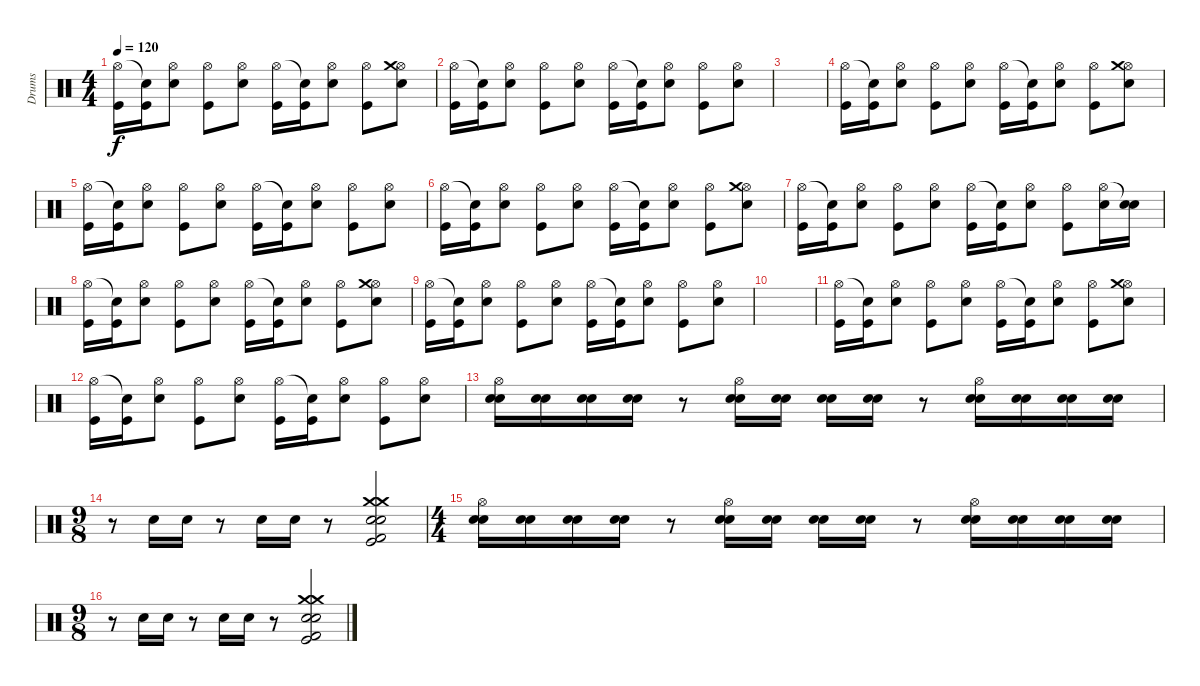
\track ("Drums" "Drums") {instrument percussion}
\staff {score}
\articulation defaults
\ts (4 4)
\tempo 120
\clef neutral
\ks c
("Hi-Hat (open)" "Kick (hit)").16{dy f} ("Snare (hit)"{t} "Kick (hit)").16 ("Hi-Hat (open)" "Electric Snare (hit)").8 ("Hi-Hat (open)" "Kick (hit)").8 ("Hi-Hat (open)" "Electric Snare (hit)").8 ("Hi-Hat (open)" "Kick (hit)").16 ("Snare (hit)"{t} "Kick (hit)").16 ("Hi-Hat (open)" "Electric Snare (hit)").8 ("Hi-Hat (open)" "Kick (hit)").8 ("Hi-Hat (open)" "Crash medium (hit)" "Electric Snare (hit)").8 |
("Hi-Hat (open)" "Kick (hit)").16 ("Snare (hit)"{t} "Kick (hit)").16 ("Hi-Hat (open)" "Electric Snare (hit)").8 ("Hi-Hat (open)" "Kick (hit)").8 ("Hi-Hat (open)" "Electric Snare (hit)").8 ("Hi-Hat (open)" "Kick (hit)").16 ("Snare (hit)"{t} "Kick (hit)").16 ("Hi-Hat (open)" "Electric Snare (hit)").8 ("Hi-Hat (open)" "Kick (hit)").8 ("Hi-Hat (open)" "Electric Snare (hit)").8 |
|
("Hi-Hat (open)" "Kick (hit)").16 ("Snare (hit)"{t} "Kick (hit)").16 ("Hi-Hat (open)" "Electric Snare (hit)").8 ("Hi-Hat (open)" "Kick (hit)").8 ("Hi-Hat (open)" "Electric Snare (hit)").8 ("Hi-Hat (open)" "Kick (hit)").16 ("Snare (hit)"{t} "Kick (hit)").16 ("Hi-Hat (open)" "Electric Snare (hit)").8 ("Hi-Hat (open)" "Kick (hit)").8 ("Hi-Hat (open)" "Crash medium (hit)" "Electric Snare (hit)").8 |
("Hi-Hat (open)" "Kick (hit)").16 ("Snare (hit)"{t} "Kick (hit)").16 ("Hi-Hat (open)" "Electric Snare (hit)").8 ("Hi-Hat (open)" "Kick (hit)").8 ("Hi-Hat (open)" "Electric Snare (hit)").8 ("Hi-Hat (open)" "Kick (hit)").16 ("Snare (hit)"{t} "Kick (hit)").16 ("Hi-Hat (open)" "Electric Snare (hit)").8 ("Hi-Hat (open)" "Kick (hit)").8 ("Hi-Hat (open)" "Electric Snare (hit)").8 |
("Hi-Hat (open)" "Kick (hit)").16 ("Snare (hit)"{t} "Kick (hit)").16 ("Hi-Hat (open)" "Electric Snare (hit)").8 ("Hi-Hat (open)" "Kick (hit)").8 ("Hi-Hat (open)" "Electric Snare (hit)").8 ("Hi-Hat (open)" "Kick (hit)").16 ("Snare (hit)"{t} "Kick (hit)").16 ("Hi-Hat (open)" "Electric Snare (hit)").8 ("Hi-Hat (open)" "Kick (hit)").8 ("Hi-Hat (open)" "Crash medium (hit)" "Electric Snare (hit)").8 |
("Hi-Hat (open)" "Kick (hit)").16 ("Snare (hit)"{t} "Kick (hit)").16 ("Hi-Hat (open)" "Electric Snare (hit)").8 ("Hi-Hat (open)" "Kick (hit)").8 ("Hi-Hat (open)" "Electric Snare (hit)").8 ("Hi-Hat (open)" "Kick (hit)").16 ("Snare (hit)"{t} "Kick (hit)").16 ("Hi-Hat (open)" "Electric Snare (hit)").8 ("Hi-Hat (open)" "Kick (hit)").8 ("Hi-Hat (open)" "Electric Snare (hit)").16 ("Snare (hit)"{t} "Electric Snare (hit)").16 |
("Hi-Hat (open)" "Kick (hit)").16 ("Snare (hit)"{t} "Kick (hit)").16 ("Hi-Hat (open)" "Electric Snare (hit)").8 ("Hi-Hat (open)" "Kick (hit)").8 ("Hi-Hat (open)" "Electric Snare (hit)").8 ("Hi-Hat (open)" "Kick (hit)").16 ("Snare (hit)"{t} "Kick (hit)").16 ("Hi-Hat (open)" "Electric Snare (hit)").8 ("Hi-Hat (open)" "Kick (hit)").8 ("Hi-Hat (open)" "Crash medium (hit)" "Electric Snare (hit)").8 |
("Hi-Hat (open)" "Kick (hit)").16 ("Snare (hit)"{t} "Kick (hit)").16 ("Hi-Hat (open)" "Electric Snare (hit)").8 ("Hi-Hat (open)" "Kick (hit)").8 ("Hi-Hat (open)" "Electric Snare (hit)").8 ("Hi-Hat (open)" "Kick (hit)").16 ("Snare (hit)"{t} "Kick (hit)").16 ("Hi-Hat (open)" "Electric Snare (hit)").8 ("Hi-Hat (open)" "Kick (hit)").8 ("Hi-Hat (open)" "Electric Snare (hit)").8 |
|
("Hi-Hat (open)" "Kick (hit)").16 ("Snare (hit)"{t} "Kick (hit)").16 ("Hi-Hat (open)" "Electric Snare (hit)").8 ("Hi-Hat (open)" "Kick (hit)").8 ("Hi-Hat (open)" "Electric Snare (hit)").8 ("Hi-Hat (open)" "Kick (hit)").16 ("Snare (hit)"{t} "Kick (hit)").16 ("Hi-Hat (open)" "Electric Snare (hit)").8 ("Hi-Hat (open)" "Kick (hit)").8 ("Hi-Hat (open)" "Crash medium (hit)" "Electric Snare (hit)").8 |
("Hi-Hat (open)" "Kick (hit)").16 ("Snare (hit)"{t} "Kick (hit)").16 ("Hi-Hat (open)" "Electric Snare (hit)").8 ("Hi-Hat (open)" "Kick (hit)").8 ("Hi-Hat (open)" "Electric Snare (hit)").8 ("Hi-Hat (open)" "Kick (hit)").16 ("Snare (hit)"{t} "Kick (hit)").16 ("Hi-Hat (open)" "Electric Snare (hit)").8 ("Hi-Hat (open)" "Kick (hit)").8 ("Hi-Hat (open)" "Electric Snare (hit)").8 |
("Hi-Hat (open)" "Snare (hit) 2" "Electric Snare (hit)").16 ("Snare (hit) 2" "Electric Snare (hit)").16 ("Snare (hit) 2" "Electric Snare (hit)").16 ("Snare (hit) 2" "Electric Snare (hit)").16 r.8 ("Hi-Hat (open)" "Snare (hit) 2" "Electric Snare (hit)").16 ("Snare (hit) 2" "Electric Snare (hit)").16 ("Snare (hit) 2" "Electric Snare (hit)").16 ("Snare (hit) 2" "Electric Snare (hit)").16 r.8 ("Hi-Hat (open)" "Snare (hit) 2" "Electric Snare (hit)").16 ("Snare (hit) 2" "Electric Snare (hit)").16 ("Snare (hit) 2" "Electric Snare (hit)").16 ("Snare (hit) 2" "Electric Snare (hit)").16 |
\ts (9 8)
r.8 "Electric Snare (hit)".16 "Electric Snare (hit)".16 r.8 "Electric Snare (hit)".16 "Electric Snare (hit)".16 r.8 ("Crash medium (hit)" "Crash medium (hit)" "Kick (hit) 2" "Kick (hit)" "Snare (hit) 2" "Electric Snare (hit)").2 |
\ts (4 4)
("Hi-Hat (open)" "Snare (hit) 2" "Electric Snare (hit)").16 ("Snare (hit) 2" "Electric Snare (hit)").16 ("Snare (hit) 2" "Electric Snare (hit)").16 ("Snare (hit) 2" "Electric Snare (hit)").16 r.8 ("Hi-Hat (open)" "Snare (hit) 2" "Electric Snare (hit)").16 ("Snare (hit) 2" "Electric Snare (hit)").16 ("Snare (hit) 2" "Electric Snare (hit)").16 ("Snare (hit) 2" "Electric Snare (hit)").16 r.8 ("Hi-Hat (open)" "Snare (hit) 2" "Electric Snare (hit)").16 ("Snare (hit) 2" "Electric Snare (hit)").16 ("Snare (hit) 2" "Electric Snare (hit)").16 ("Snare (hit) 2" "Electric Snare (hit)").16 |
\ts (9 8)
r.8 "Electric Snare (hit)".16 "Electric Snare (hit)".16 r.8 "Electric Snare (hit)".16 "Electric Snare (hit)".16 r.8 ("Crash medium (hit)" "Crash medium (hit)" "Kick (hit) 2" "Kick (hit)" "Snare (hit) 2" "Electric Snare (hit)").2
